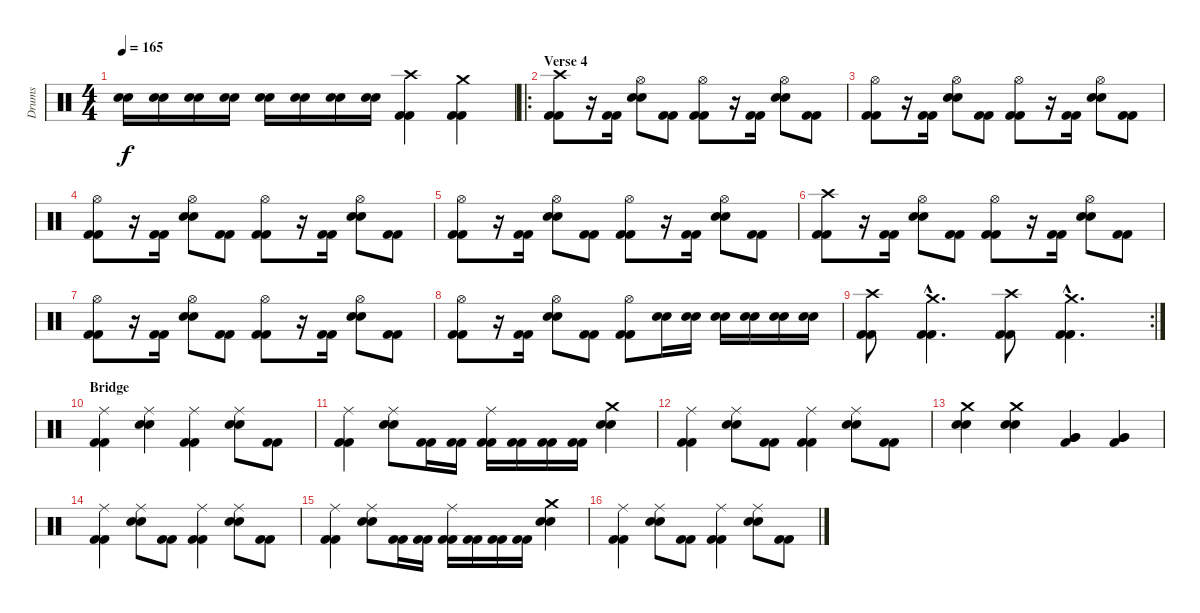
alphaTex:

\track ("Drums" "Drums") {instrument percussion}
\staff {score}
\articulation defaults
\ts (4 4)
\tempo 165
\clef neutral
\ks c
("Snare (hit) 2" "Snare (hit) 2").16{dy f} ("Snare (hit) 2" "Snare (hit) 2").16 ("Snare (hit) 2" "Snare (hit) 2").16 ("Snare (hit) 2" "Snare (hit) 2").16 ("Snare (hit) 2" "Snare (hit) 2").16 ("Snare (hit) 2" "Snare (hit) 2").16 ("Snare (hit) 2" "Snare (hit) 2").16 ("Snare (hit) 2" "Snare (hit) 2").16 ("Crash high (hit)" "Kick (hit) 2" "Kick (hit) 2").4 ("Crash medium (hit)" "Kick (hit) 2" "Kick (hit) 2").4 |
\ro
\section ("" "Verse 4")
("Crash high (hit)" "Kick (hit) 2" "Kick (hit) 2").8 r.16 ("Kick (hit) 2" "Kick (hit) 2").16 ("Hi-Hat (open)" "Snare (hit) 2" "Snare (hit) 2").8 ("Kick (hit) 2" "Kick (hit) 2").8 ("Hi-Hat (open)" "Kick (hit) 2" "Kick (hit) 2").8 r.16 ("Kick (hit) 2" "Kick (hit) 2").16 ("Hi-Hat (open)" "Snare (hit) 2" "Snare (hit) 2").8 ("Kick (hit) 2" "Kick (hit) 2").8 |
("Hi-Hat (open)" "Kick (hit) 2" "Kick (hit) 2").8 r.16 ("Kick (hit) 2" "Kick (hit) 2").16 ("Hi-Hat (open)" "Snare (hit) 2" "Snare (hit) 2").8 ("Kick (hit) 2" "Kick (hit) 2").8 ("Hi-Hat (open)" "Kick (hit) 2" "Kick (hit) 2").8 r.16 ("Kick (hit) 2" "Kick (hit) 2").16 ("Hi-Hat (open)" "Snare (hit) 2" "Snare (hit) 2").8 ("Kick (hit) 2" "Kick (hit) 2").8 |
("Hi-Hat (open)" "Kick (hit) 2" "Kick (hit) 2").8 r.16 ("Kick (hit) 2" "Kick (hit) 2").16 ("Hi-Hat (open)" "Snare (hit) 2" "Snare (hit) 2").8 ("Kick (hit) 2" "Kick (hit) 2").8 ("Hi-Hat (open)" "Kick (hit) 2" "Kick (hit) 2").8 r.16 ("Kick (hit) 2" "Kick (hit) 2").16 ("Hi-Hat (open)" "Snare (hit) 2" "Snare (hit) 2").8 ("Kick (hit) 2" "Kick (hit) 2").8 |
("Hi-Hat (open)" "Kick (hit) 2" "Kick (hit) 2").8 r.16 ("Kick (hit) 2" "Kick (hit) 2").16 ("Hi-Hat (open)" "Snare (hit) 2" "Snare (hit) 2").8 ("Kick (hit) 2" "Kick (hit) 2").8 ("Hi-Hat (open)" "Kick (hit) 2" "Kick (hit) 2").8 r.16 ("Kick (hit) 2" "Kick (hit) 2").16 ("Hi-Hat (open)" "Snare (hit) 2" "Snare (hit) 2").8 ("Kick (hit) 2" "Kick (hit) 2").8 |
("Crash high (hit)" "Kick (hit) 2" "Kick (hit) 2").8 r.16 ("Kick (hit) 2" "Kick (hit) 2").16 ("Hi-Hat (open)" "Snare (hit) 2" "Snare (hit) 2").8 ("Kick (hit) 2" "Kick (hit) 2").8 ("Hi-Hat (open)" "Kick (hit) 2" "Kick (hit) 2").8 r.16 ("Kick (hit) 2" "Kick (hit) 2").16 ("Hi-Hat (open)" "Snare (hit) 2" "Snare (hit) 2").8 ("Kick (hit) 2" "Kick (hit) 2").8 |
("Hi-Hat (open)" "Kick (hit) 2" "Kick (hit) 2").8 r.16 ("Kick (hit) 2" "Kick (hit) 2").16 ("Hi-Hat (open)" "Snare (hit) 2" "Snare (hit) 2").8 ("Kick (hit) 2" "Kick (hit) 2").8 ("Hi-Hat (open)" "Kick (hit) 2" "Kick (hit) 2").8 r.16 ("Kick (hit) 2" "Kick (hit) 2").16 ("Hi-Hat (open)" "Snare (hit) 2" "Snare (hit) 2").8 ("Kick (hit) 2" "Kick (hit) 2").8 |
("Hi-Hat (open)" "Kick (hit) 2" "Kick (hit) 2").8 r.16 ("Kick (hit) 2" "Kick (hit) 2").16 ("Hi-Hat (open)" "Snare (hit) 2" "Snare (hit) 2").8 ("Kick (hit) 2" "Kick (hit) 2").8 ("Hi-Hat (open)" "Kick (hit) 2" "Kick (hit) 2").8 ("Snare (hit) 2" "Snare (hit) 2").16 ("Snare (hit) 2" "Snare (hit) 2").16 ("Snare (hit) 2" "Snare (hit) 2").16 ("Snare (hit) 2" "Snare (hit) 2").16 ("Snare (hit) 2" "Snare (hit) 2").16 ("Snare (hit) 2" "Snare (hit) 2").16 |
\rc 2
("Crash high (hit)" "Kick (hit) 2" "Kick (hit) 2").8 ("Crash medium (hit)"{hac} "Kick (hit) 2"{hac} "Kick (hit) 2"{hac}).4{d} ("Crash high (hit)" "Kick (hit) 2" "Kick (hit) 2").8 ("Crash medium (hit)"{hac} "Kick (hit) 2"{hac} "Kick (hit) 2"{hac}).4{d} |
\section ("" "Bridge")
("Ride (middle)" "Kick (hit) 2" "Kick (hit) 2").4 ("Ride (middle)" "Snare (hit) 2" "Snare (hit) 2").4 ("Ride (middle)" "Kick (hit) 2" "Kick (hit) 2").4 ("Ride (middle)" "Snare (hit) 2" "Snare (hit) 2").8 ("Kick (hit) 2" "Kick (hit) 2").8 |
("Ride (middle)" "Kick (hit) 2" "Kick (hit) 2").4 ("Ride (middle)" "Snare (hit) 2" "Snare (hit) 2").8 ("Kick (hit) 2" "Kick (hit) 2").16 ("Kick (hit) 2" "Kick (hit) 2").16 ("Ride (middle)" "Kick (hit) 2" "Kick (hit) 2").16 ("Kick (hit) 2" "Kick (hit) 2").16 ("Kick (hit) 2" "Kick (hit) 2").16 ("Kick (hit) 2" "Kick (hit) 2").16 ("Crash medium (hit)" "Snare (hit) 2" "Snare (hit) 2").4 |
("Ride (middle)" "Kick (hit) 2" "Kick (hit) 2").4 ("Ride (middle)" "Snare (hit) 2" "Snare (hit) 2").8 ("Kick (hit) 2" "Kick (hit) 2").8 ("Ride (middle)" "Kick (hit) 2" "Kick (hit) 2").4 ("Ride (middle)" "Snare (hit) 2" "Snare (hit) 2").8 ("Kick (hit) 2" "Kick (hit) 2").8 |
("Crash medium (hit)" "Snare (hit) 2" "Snare (hit) 2").4 ("Crash medium (hit)" "Snare (hit) 2" "Snare (hit) 2").4 ("Very Low Tom (hit)" "Very Low Tom (hit)" "Kick (hit) 2").4 ("Very Low Tom (hit)" "Very Low Tom (hit)" "Kick (hit) 2").4 |
("Ride (middle)" "Kick (hit) 2" "Kick (hit) 2").4 ("Ride (middle)" "Snare (hit) 2" "Snare (hit) 2").8 ("Kick (hit) 2" "Kick (hit) 2").8 ("Ride (middle)" "Kick (hit) 2" "Kick (hit) 2").4 ("Ride (middle)" "Snare (hit) 2" "Snare (hit) 2").8 ("Kick (hit) 2" "Kick (hit) 2").8 |
("Ride (middle)" "Kick (hit) 2" "Kick (hit) 2").4 ("Ride (middle)" "Snare (hit) 2" "Snare (hit) 2").8 ("Kick (hit) 2" "Kick (hit) 2").16 ("Kick (hit) 2" "Kick (hit) 2").16 ("Ride (middle)" "Kick (hit) 2" "Kick (hit) 2").16 ("Kick (hit) 2" "Kick (hit) 2").16 ("Kick (hit) 2" "Kick (hit) 2").16 ("Kick (hit) 2" "Kick (hit) 2").16 ("Crash medium (hit)" "Snare (hit) 2" "Snare (hit) 2").4 |
("Ride (middle)" "Kick (hit) 2" "Kick (hit) 2").4 ("Ride (middle)" "Snare (hit) 2" "Snare (hit) 2").8 ("Kick (hit) 2" "Kick (hit) 2").8 ("Ride (middle)" "Kick (hit) 2" "Kick (hit) 2").4 ("Ride (middle)" "Snare (hit) 2" "Snare (hit) 2").8 ("Kick (hit) 2" "Kick (hit) 2").8
